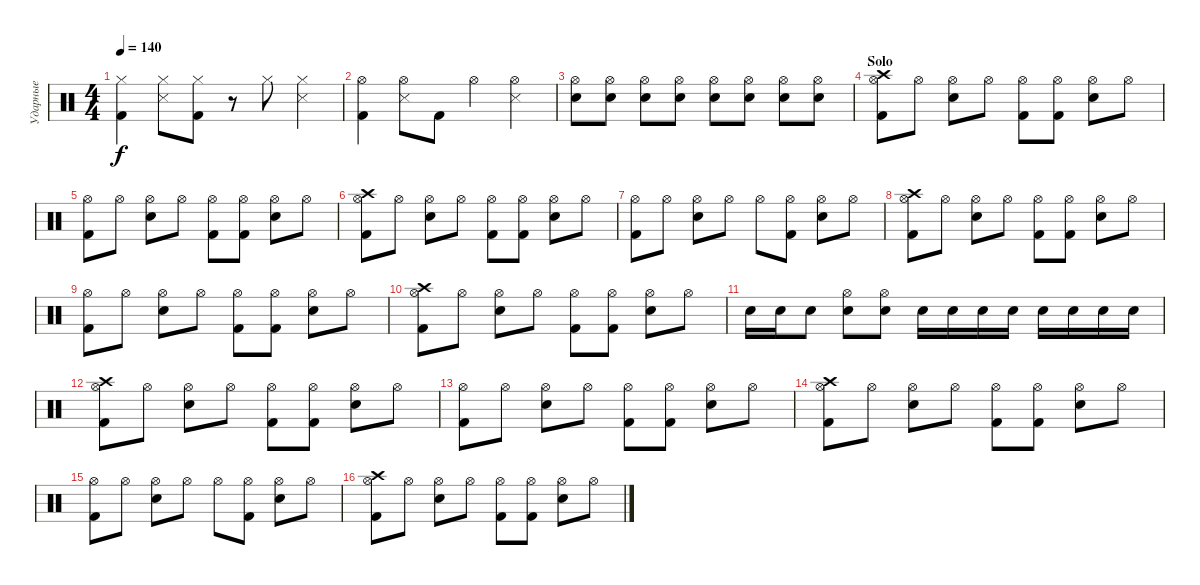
\track ("Ударные" "Ударные") {instrument percussion}
\staff {score}
\articulation defaults
\ts (4 4)
\tempo 140
\clef neutral
\ks c
("Hi-Hat (closed)" "Kick (hit) 2").4{dy f} ("Hi-Hat (closed)" "Snare (side stick) 3").8 ("Hi-Hat (closed)" "Kick (hit) 2").8 r.8 "Hi-Hat (closed)".8 ("Hi-Hat (closed)" "Snare (side stick) 3").4 |
("Hi-Hat (open)" "Kick (hit) 2").4 ("Hi-Hat (open)" "Snare (side stick) 3").8 "Kick (hit) 2".8 "Hi-Hat (open)".4 ("Hi-Hat (open)" "Snare (side stick) 3").4 |
("Hi-Hat (open)" "Snare (hit) 2").8 ("Hi-Hat (open)" "Snare (hit) 2").8 ("Hi-Hat (open)" "Snare (hit) 2").8 ("Hi-Hat (open)" "Snare (hit) 2").8 ("Hi-Hat (open)" "Snare (hit) 2").8 ("Hi-Hat (open)" "Snare (hit) 2").8 ("Hi-Hat (open)" "Snare (hit) 2").8 ("Hi-Hat (open)" "Snare (hit) 2").8 |
\section ("" "Solo")
("Hi-Hat (open)" "Crash high (hit)" "Kick (hit) 2").8 "Hi-Hat (open)".8 ("Hi-Hat (open)" "Snare (hit) 2").8 "Hi-Hat (open)".8 ("Hi-Hat (open)" "Kick (hit) 2").8 ("Hi-Hat (open)" "Kick (hit) 2").8 ("Hi-Hat (open)" "Snare (hit) 2").8 "Hi-Hat (open)".8 |
("Hi-Hat (open)" "Kick (hit) 2").8 "Hi-Hat (open)".8 ("Hi-Hat (open)" "Snare (hit) 2").8 "Hi-Hat (open)".8 ("Hi-Hat (open)" "Kick (hit) 2").8 ("Hi-Hat (open)" "Kick (hit) 2").8 ("Hi-Hat (open)" "Snare (hit) 2").8 "Hi-Hat (open)".8 |
("Hi-Hat (open)" "Crash high (hit)" "Kick (hit) 2").8 "Hi-Hat (open)".8 ("Hi-Hat (open)" "Snare (hit) 2").8 "Hi-Hat (open)".8 ("Hi-Hat (open)" "Kick (hit) 2").8 ("Hi-Hat (open)" "Kick (hit) 2").8 ("Hi-Hat (open)" "Snare (hit) 2").8 "Hi-Hat (open)".8 |
("Hi-Hat (open)" "Kick (hit) 2").8 "Hi-Hat (open)".8 ("Hi-Hat (open)" "Snare (hit) 2").8 "Hi-Hat (open)".8 "Hi-Hat (open)".8 ("Hi-Hat (open)" "Kick (hit) 2").8 ("Hi-Hat (open)" "Snare (hit) 2").8 "Hi-Hat (open)".8 |
("Hi-Hat (open)" "Crash high (hit)" "Kick (hit) 2").8 "Hi-Hat (open)".8 ("Hi-Hat (open)" "Snare (hit) 2").8 "Hi-Hat (open)".8 ("Hi-Hat (open)" "Kick (hit) 2").8 ("Hi-Hat (open)" "Kick (hit) 2").8 ("Hi-Hat (open)" "Snare (hit) 2").8 "Hi-Hat (open)".8 |
("Hi-Hat (open)" "Kick (hit) 2").8 "Hi-Hat (open)".8 ("Hi-Hat (open)" "Snare (hit) 2").8 "Hi-Hat (open)".8 ("Hi-Hat (open)" "Kick (hit) 2").8 ("Hi-Hat (open)" "Kick (hit) 2").8 ("Hi-Hat (open)" "Snare (hit) 2").8 "Hi-Hat (open)".8 |
("Hi-Hat (open)" "Crash high (hit)" "Kick (hit) 2").8 "Hi-Hat (open)".8 ("Hi-Hat (open)" "Snare (hit) 2").8 "Hi-Hat (open)".8 ("Hi-Hat (open)" "Kick (hit) 2").8 ("Hi-Hat (open)" "Kick (hit) 2").8 ("Hi-Hat (open)" "Snare (hit) 2").8 "Hi-Hat (open)".8 |
"Snare (hit) 2".16 "Snare (hit) 2".16 "Snare (hit) 2".8 ("Hi-Hat (open)" "Snare (hit) 2").8 ("Hi-Hat (open)" "Snare (hit) 2").8 "Snare (hit) 2".16 "Snare (hit) 2".16 "Snare (hit) 2".16 "Snare (hit) 2".16 "Snare (hit) 2".16 "Snare (hit) 2".16 "Snare (hit) 2".16 "Snare (hit) 2".16 |
("Hi-Hat (open)" "Crash high (hit)" "Kick (hit) 2").8 "Hi-Hat (open)".8 ("Hi-Hat (open)" "Snare (hit) 2").8 "Hi-Hat (open)".8 ("Hi-Hat (open)" "Kick (hit) 2").8 ("Hi-Hat (open)" "Kick (hit) 2").8 ("Hi-Hat (open)" "Snare (hit) 2").8 "Hi-Hat (open)".8 |
("Hi-Hat (open)" "Kick (hit) 2").8 "Hi-Hat (open)".8 ("Hi-Hat (open)" "Snare (hit) 2").8 "Hi-Hat (open)".8 ("Hi-Hat (open)" "Kick (hit) 2").8 ("Hi-Hat (open)" "Kick (hit) 2").8 ("Hi-Hat (open)" "Snare (hit) 2").8 "Hi-Hat (open)".8 |
("Hi-Hat (open)" "Crash high (hit)" "Kick (hit) 2").8 "Hi-Hat (open)".8 ("Hi-Hat (open)" "Snare (hit) 2").8 "Hi-Hat (open)".8 ("Hi-Hat (open)" "Kick (hit) 2").8 ("Hi-Hat (open)" "Kick (hit) 2").8 ("Hi-Hat (open)" "Snare (hit) 2").8 "Hi-Hat (open)".8 |
("Hi-Hat (open)" "Kick (hit) 2").8 "Hi-Hat (open)".8 ("Hi-Hat (open)" "Snare (hit) 2").8 "Hi-Hat (open)".8 "Hi-Hat (open)".8 ("Hi-Hat (open)" "Kick (hit) 2").8 ("Hi-Hat (open)" "Snare (hit) 2").8 "Hi-Hat (open)".8 |
("Hi-Hat (open)" "Crash high (hit)" "Kick (hit) 2").8 "Hi-Hat (open)".8 ("Hi-Hat (open)" "Snare (hit) 2").8 "Hi-Hat (open)".8 ("Hi-Hat (open)" "Kick (hit) 2").8 ("Hi-Hat (open)" "Kick (hit) 2").8 ("Hi-Hat (open)" "Snare (hit) 2").8 "Hi-Hat (open)".8
